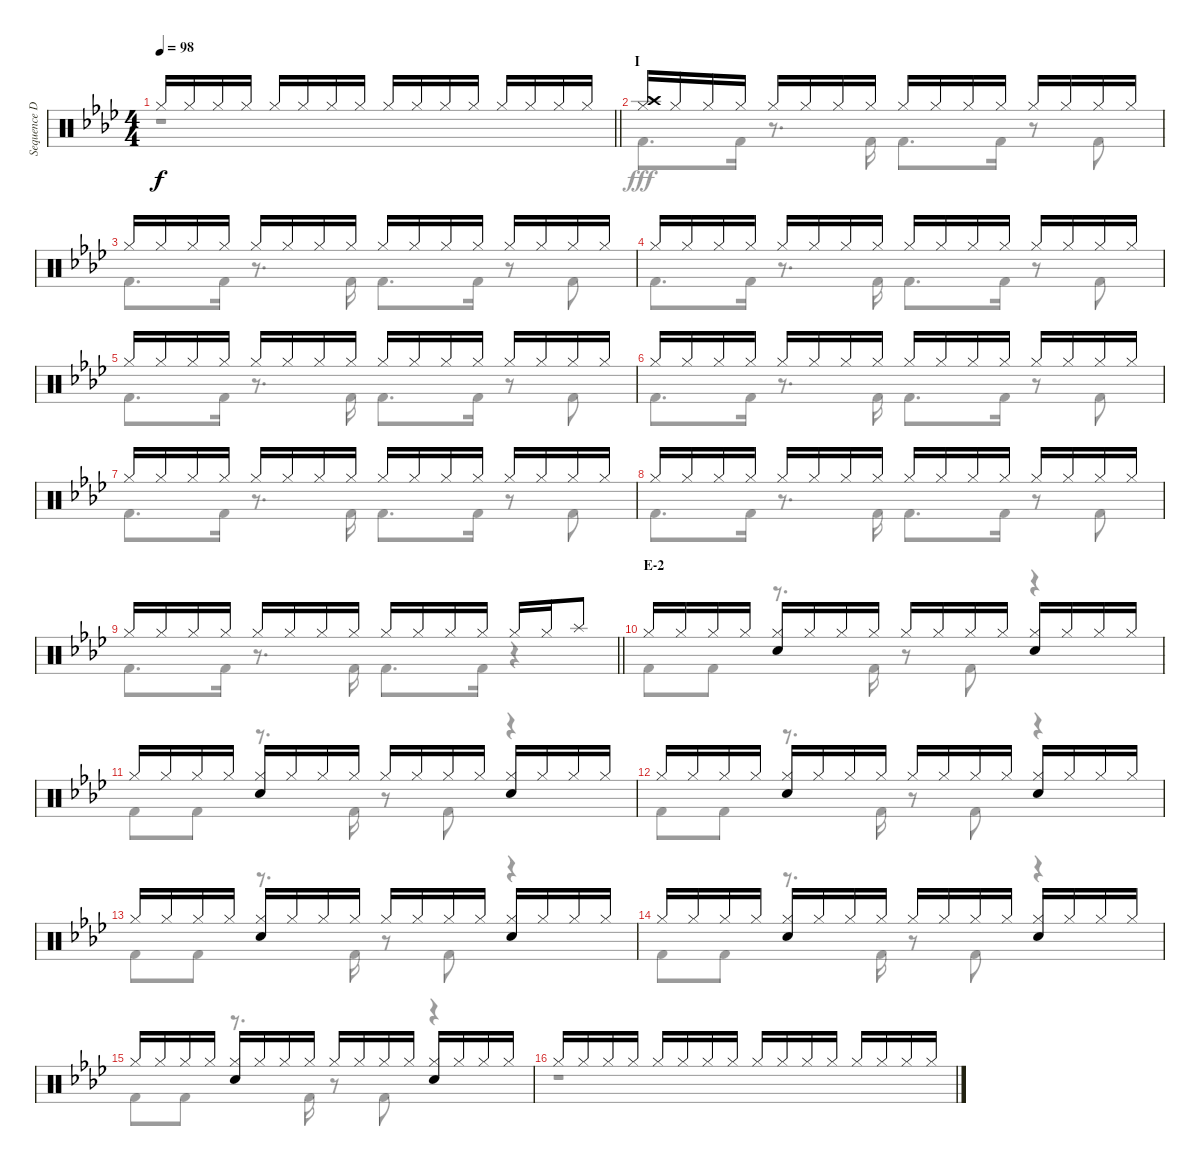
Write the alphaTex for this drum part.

\track ("Sequence Drums I" "Sequence D") {instrument percussion}
\staff {score}
\articulation defaults
\voice
\ts (4 4)
\tempo 98
\clef neutral
\barLineRight lightlight
\ks ab "Hi-Hat (closed)".16{dy f} "Hi-Hat (closed)".16 "Hi-Hat (closed)".16 "Hi-Hat (closed)".16 "Hi-Hat (closed)".16 "Hi-Hat (closed)".16 "Hi-Hat (closed)".16 "Hi-Hat (closed)".16 "Hi-Hat (closed)".16 "Hi-Hat (closed)".16 "Hi-Hat (closed)".16 "Hi-Hat (closed)".16 "Hi-Hat (closed)".16 "Hi-Hat (closed)".16 "Hi-Hat (closed)".16 "Hi-Hat (closed)".16
|
\section ("" "I")
("Crash high (hit)" "Hi-Hat (closed)").16 "Hi-Hat (closed)".16 "Hi-Hat (closed)".16 "Hi-Hat (closed)".16 "Hi-Hat (closed)".16 "Hi-Hat (closed)".16 "Hi-Hat (closed)".16 "Hi-Hat (closed)".16 "Hi-Hat (closed)".16 "Hi-Hat (closed)".16 "Hi-Hat (closed)".16 "Hi-Hat (closed)".16 "Hi-Hat (closed)".16 "Hi-Hat (closed)".16 "Hi-Hat (closed)".16 "Hi-Hat (closed)".16 |
"Hi-Hat (closed)".16 "Hi-Hat (closed)".16 "Hi-Hat (closed)".16 "Hi-Hat (closed)".16 "Hi-Hat (closed)".16 "Hi-Hat (closed)".16 "Hi-Hat (closed)".16 "Hi-Hat (closed)".16 "Hi-Hat (closed)".16 "Hi-Hat (closed)".16 "Hi-Hat (closed)".16 "Hi-Hat (closed)".16 "Hi-Hat (closed)".16 "Hi-Hat (closed)".16 "Hi-Hat (closed)".16 "Hi-Hat (closed)".16 |
"Hi-Hat (closed)".16 "Hi-Hat (closed)".16 "Hi-Hat (closed)".16 "Hi-Hat (closed)".16 "Hi-Hat (closed)".16 "Hi-Hat (closed)".16 "Hi-Hat (closed)".16 "Hi-Hat (closed)".16 "Hi-Hat (closed)".16 "Hi-Hat (closed)".16 "Hi-Hat (closed)".16 "Hi-Hat (closed)".16 "Hi-Hat (closed)".16 "Hi-Hat (closed)".16 "Hi-Hat (closed)".16 "Hi-Hat (closed)".16 |
"Hi-Hat (closed)".16 "Hi-Hat (closed)".16 "Hi-Hat (closed)".16 "Hi-Hat (closed)".16 "Hi-Hat (closed)".16 "Hi-Hat (closed)".16 "Hi-Hat (closed)".16 "Hi-Hat (closed)".16 "Hi-Hat (closed)".16 "Hi-Hat (closed)".16 "Hi-Hat (closed)".16 "Hi-Hat (closed)".16 "Hi-Hat (closed)".16 "Hi-Hat (closed)".16 "Hi-Hat (closed)".16 "Hi-Hat (closed)".16 |
"Hi-Hat (closed)".16 "Hi-Hat (closed)".16 "Hi-Hat (closed)".16 "Hi-Hat (closed)".16 "Hi-Hat (closed)".16 "Hi-Hat (closed)".16 "Hi-Hat (closed)".16 "Hi-Hat (closed)".16 "Hi-Hat (closed)".16 "Hi-Hat (closed)".16 "Hi-Hat (closed)".16 "Hi-Hat (closed)".16 "Hi-Hat (closed)".16 "Hi-Hat (closed)".16 "Hi-Hat (closed)".16 "Hi-Hat (closed)".16 |
"Hi-Hat (closed)".16 "Hi-Hat (closed)".16 "Hi-Hat (closed)".16 "Hi-Hat (closed)".16 "Hi-Hat (closed)".16 "Hi-Hat (closed)".16 "Hi-Hat (closed)".16 "Hi-Hat (closed)".16 "Hi-Hat (closed)".16 "Hi-Hat (closed)".16 "Hi-Hat (closed)".16 "Hi-Hat (closed)".16 "Hi-Hat (closed)".16 "Hi-Hat (closed)".16 "Hi-Hat (closed)".16 "Hi-Hat (closed)".16 |
"Hi-Hat (closed)".16 "Hi-Hat (closed)".16 "Hi-Hat (closed)".16 "Hi-Hat (closed)".16 "Hi-Hat (closed)".16 "Hi-Hat (closed)".16 "Hi-Hat (closed)".16 "Hi-Hat (closed)".16 "Hi-Hat (closed)".16 "Hi-Hat (closed)".16 "Hi-Hat (closed)".16 "Hi-Hat (closed)".16 "Hi-Hat (closed)".16 "Hi-Hat (closed)".16 "Hi-Hat (closed)".16 "Hi-Hat (closed)".16 |
\barLineRight lightlight "Hi-Hat (closed)".16 "Hi-Hat (closed)".16 "Hi-Hat (closed)".16 "Hi-Hat (closed)".16 "Hi-Hat (closed)".16 "Hi-Hat (closed)".16 "Hi-Hat (closed)".16 "Hi-Hat (closed)".16 "Hi-Hat (closed)".16 "Hi-Hat (closed)".16 "Hi-Hat (closed)".16 "Hi-Hat (closed)".16 "Hi-Hat (closed)".16 "Hi-Hat (closed)".16 "Splash (hit)".8
|
\section ("" "E-2")
"Hi-Hat (closed)".16 "Hi-Hat (closed)".16 "Hi-Hat (closed)".16 "Hi-Hat (closed)".16 ("Hi-Hat (closed)" "Electric Snare (hit)").16 "Hi-Hat (closed)".16 "Hi-Hat (closed)".16 "Hi-Hat (closed)".16 "Hi-Hat (closed)".16 "Hi-Hat (closed)".16 "Hi-Hat (closed)".16 "Hi-Hat (closed)".16 ("Hi-Hat (closed)" "Electric Snare (hit)").16 "Hi-Hat (closed)".16 "Hi-Hat (closed)".16 "Hi-Hat (closed)".16 |
"Hi-Hat (closed)".16 "Hi-Hat (closed)".16 "Hi-Hat (closed)".16 "Hi-Hat (closed)".16 ("Hi-Hat (closed)" "Electric Snare (hit)").16 "Hi-Hat (closed)".16 "Hi-Hat (closed)".16 "Hi-Hat (closed)".16 "Hi-Hat (closed)".16 "Hi-Hat (closed)".16 "Hi-Hat (closed)".16 "Hi-Hat (closed)".16 ("Hi-Hat (closed)" "Electric Snare (hit)").16 "Hi-Hat (closed)".16 "Hi-Hat (closed)".16 "Hi-Hat (closed)".16 |
"Hi-Hat (closed)".16 "Hi-Hat (closed)".16 "Hi-Hat (closed)".16 "Hi-Hat (closed)".16 ("Hi-Hat (closed)" "Electric Snare (hit)").16 "Hi-Hat (closed)".16 "Hi-Hat (closed)".16 "Hi-Hat (closed)".16 "Hi-Hat (closed)".16 "Hi-Hat (closed)".16 "Hi-Hat (closed)".16 "Hi-Hat (closed)".16 ("Hi-Hat (closed)" "Electric Snare (hit)").16 "Hi-Hat (closed)".16 "Hi-Hat (closed)".16 "Hi-Hat (closed)".16 |
"Hi-Hat (closed)".16 "Hi-Hat (closed)".16 "Hi-Hat (closed)".16 "Hi-Hat (closed)".16 ("Hi-Hat (closed)" "Electric Snare (hit)").16 "Hi-Hat (closed)".16 "Hi-Hat (closed)".16 "Hi-Hat (closed)".16 "Hi-Hat (closed)".16 "Hi-Hat (closed)".16 "Hi-Hat (closed)".16 "Hi-Hat (closed)".16 ("Hi-Hat (closed)" "Electric Snare (hit)").16 "Hi-Hat (closed)".16 "Hi-Hat (closed)".16 "Hi-Hat (closed)".16 |
"Hi-Hat (closed)".16 "Hi-Hat (closed)".16 "Hi-Hat (closed)".16 "Hi-Hat (closed)".16 ("Hi-Hat (closed)" "Electric Snare (hit)").16 "Hi-Hat (closed)".16 "Hi-Hat (closed)".16 "Hi-Hat (closed)".16 "Hi-Hat (closed)".16 "Hi-Hat (closed)".16 "Hi-Hat (closed)".16 "Hi-Hat (closed)".16 ("Hi-Hat (closed)" "Electric Snare (hit)").16 "Hi-Hat (closed)".16 "Hi-Hat (closed)".16 "Hi-Hat (closed)".16 |
"Hi-Hat (closed)".16 "Hi-Hat (closed)".16 "Hi-Hat (closed)".16 "Hi-Hat (closed)".16 ("Hi-Hat (closed)" "Electric Snare (hit)").16 "Hi-Hat (closed)".16 "Hi-Hat (closed)".16 "Hi-Hat (closed)".16 "Hi-Hat (closed)".16 "Hi-Hat (closed)".16 "Hi-Hat (closed)".16 "Hi-Hat (closed)".16 ("Hi-Hat (closed)" "Electric Snare (hit)").16 "Hi-Hat (closed)".16 "Hi-Hat (closed)".16 "Hi-Hat (closed)".16 |
"Hi-Hat (closed)".16 "Hi-Hat (closed)".16 "Hi-Hat (closed)".16 "Hi-Hat (closed)".16 "Hi-Hat (closed)".16 "Hi-Hat (closed)".16 "Hi-Hat (closed)".16 "Hi-Hat (closed)".16 "Hi-Hat (closed)".16 "Hi-Hat (closed)".16 "Hi-Hat (closed)".16 "Hi-Hat (closed)".16 "Hi-Hat (closed)".16 "Hi-Hat (closed)".16 "Hi-Hat (closed)".16 "Hi-Hat (closed)".16
\voice
\clef neutral
\ottava regular
\simile none
\barLineRight lightlight
\ks ab
r.1{dy fff} |
"Kick (hit) 2".8{d} "Kick (hit) 2".16 r.8{d} "Kick (hit) 2".16 "Kick (hit) 2".8{d} "Kick (hit) 2".16 r.8 "Kick (hit) 2".8 |
"Kick (hit) 2".8{d} "Kick (hit) 2".16 r.8{d} "Kick (hit) 2".16 "Kick (hit) 2".8{d} "Kick (hit) 2".16 r.8 "Kick (hit) 2".8 |
"Kick (hit) 2".8{d} "Kick (hit) 2".16 r.8{d} "Kick (hit) 2".16 "Kick (hit) 2".8{d} "Kick (hit) 2".16 r.8 "Kick (hit) 2".8 |
"Kick (hit) 2".8{d} "Kick (hit) 2".16 r.8{d} "Kick (hit) 2".16 "Kick (hit) 2".8{d} "Kick (hit) 2".16 r.8 "Kick (hit) 2".8 |
"Kick (hit) 2".8{d} "Kick (hit) 2".16 r.8{d} "Kick (hit) 2".16 "Kick (hit) 2".8{d} "Kick (hit) 2".16 r.8 "Kick (hit) 2".8 |
"Kick (hit) 2".8{d} "Kick (hit) 2".16 r.8{d} "Kick (hit) 2".16 "Kick (hit) 2".8{d} "Kick (hit) 2".16 r.8 "Kick (hit) 2".8 |
"Kick (hit) 2".8{d} "Kick (hit) 2".16 r.8{d} "Kick (hit) 2".16 "Kick (hit) 2".8{d} "Kick (hit) 2".16 r.8 "Kick (hit) 2".8 |
\barLineRight lightlight "Kick (hit) 2".8{d} "Kick (hit) 2".16
r.8{d} "Kick (hit) 2".16 "Kick (hit) 2".8{d} "Kick (hit) 2".16 r.4 |
"Kick (hit) 2".8 "Kick (hit) 2".8 r.8{d} "Kick (hit) 2".16 r.8 "Kick (hit) 2".8 r.4 |
"Kick (hit) 2".8 "Kick (hit) 2".8 r.8{d} "Kick (hit) 2".16 r.8 "Kick (hit) 2".8 r.4 |
"Kick (hit) 2".8 "Kick (hit) 2".8 r.8{d} "Kick (hit) 2".16 r.8 "Kick (hit) 2".8 r.4 |
"Kick (hit) 2".8 "Kick (hit) 2".8 r.8{d} "Kick (hit) 2".16 r.8 "Kick (hit) 2".8 r.4 |
"Kick (hit) 2".8 "Kick (hit) 2".8 r.8{d} "Kick (hit) 2".16 r.8 "Kick (hit) 2".8 r.4 |
"Kick (hit) 2".8 "Kick (hit) 2".8 r.8{d} "Kick (hit) 2".16 r.8 "Kick (hit) 2".8 r.4 |
r.1
